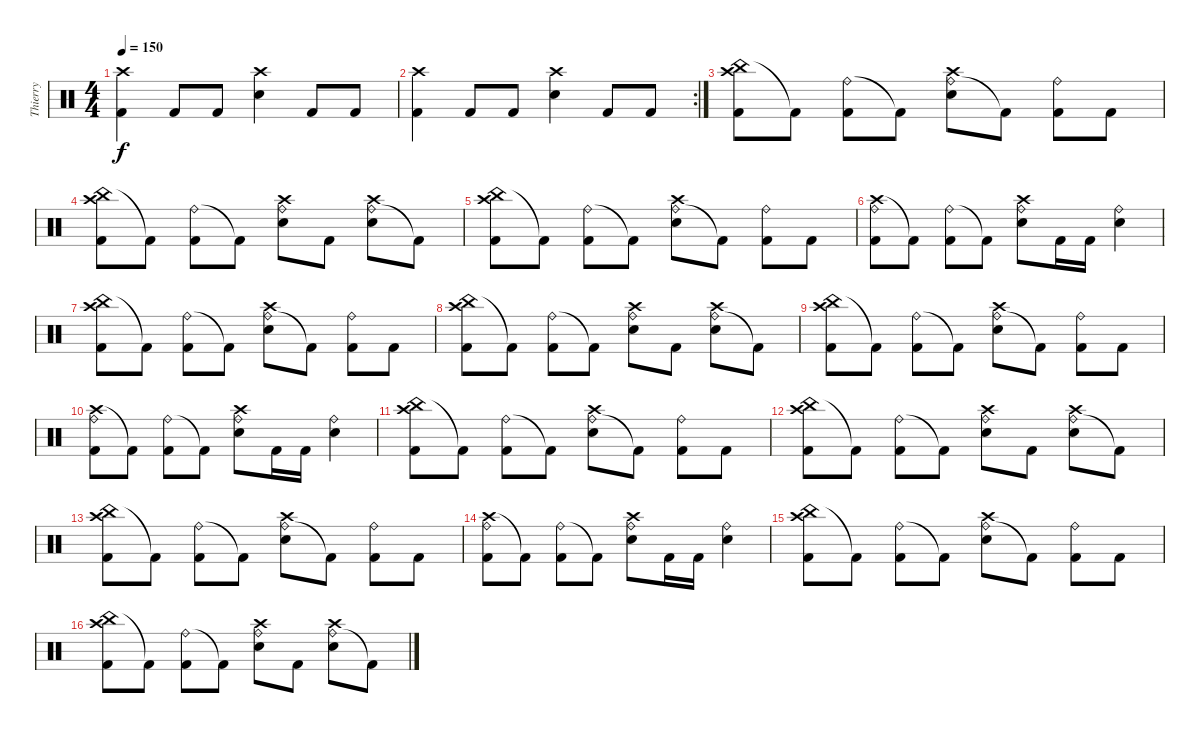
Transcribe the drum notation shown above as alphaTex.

\track ("Thierry" "Thierry") {instrument percussion}
\staff {score}
\articulation defaults
\ts (4 4)
\tempo 150
\clef neutral
\ks c
("Crash high (hit)" "Kick (hit) 2").4{dy f} "Kick (hit) 2".8 "Kick (hit) 2".8 ("Crash high (hit)" "Electric Snare (hit)").4 "Kick (hit) 2".8 "Kick (hit) 2".8 |
\rc 2
("Crash high (hit)" "Kick (hit) 2").4 "Kick (hit) 2".8 "Kick (hit) 2".8 ("Crash high (hit)" "Electric Snare (hit)").4 "Kick (hit) 2".8 "Kick (hit) 2".8 |
("China (hit)" "Crash high (hit)" "Kick (hit) 2").8 "Kick (hit) 2"{t}.8 ("Ride (bell)" "Kick (hit) 2").8 "Kick (hit) 2"{t}.8 ("Ride (bell)" "Crash high (hit)" "Electric Snare (hit)").8 "Kick (hit) 2"{t}.8 ("Ride (bell)" "Kick (hit) 2").8 "Kick (hit) 2".8 |
("China (hit)" "Crash high (hit)" "Kick (hit) 2").8 "Kick (hit) 2"{t}.8 ("Ride (bell)" "Kick (hit) 2").8 "Kick (hit) 2"{t}.8 ("Ride (bell)" "Crash high (hit)" "Electric Snare (hit)").8 "Kick (hit) 2".8 ("Ride (bell)" "Crash high (hit)" "Electric Snare (hit)").8 "Kick (hit) 2"{t}.8 |
("China (hit)" "Crash high (hit)" "Kick (hit) 2").8 "Kick (hit) 2"{t}.8 ("Ride (bell)" "Kick (hit) 2").8 "Kick (hit) 2"{t}.8 ("Ride (bell)" "Crash high (hit)" "Electric Snare (hit)").8 "Kick (hit) 2"{t}.8 ("Ride (bell)" "Kick (hit) 2").8 "Kick (hit) 2".8 |
("Crash high (hit)" "Ride (bell)" "Kick (hit) 2").8 "Kick (hit) 2"{t}.8 ("Ride (bell)" "Kick (hit) 2").8 "Kick (hit) 2"{t}.8 ("Crash high (hit)" "Ride (bell)" "Electric Snare (hit)").8 "Kick (hit) 2".16 "Kick (hit) 2".16 ("Ride (bell)" "Electric Snare (hit)").4 |
("China (hit)" "Crash high (hit)" "Kick (hit) 2").8 "Kick (hit) 2"{t}.8 ("Ride (bell)" "Kick (hit) 2").8 "Kick (hit) 2"{t}.8 ("Ride (bell)" "Crash high (hit)" "Electric Snare (hit)").8 "Kick (hit) 2"{t}.8 ("Ride (bell)" "Kick (hit) 2").8 "Kick (hit) 2".8 |
("China (hit)" "Crash high (hit)" "Kick (hit) 2").8 "Kick (hit) 2"{t}.8 ("Ride (bell)" "Kick (hit) 2").8 "Kick (hit) 2"{t}.8 ("Ride (bell)" "Crash high (hit)" "Electric Snare (hit)").8 "Kick (hit) 2".8 ("Ride (bell)" "Crash high (hit)" "Electric Snare (hit)").8 "Kick (hit) 2"{t}.8 |
("China (hit)" "Crash high (hit)" "Kick (hit) 2").8 "Kick (hit) 2"{t}.8 ("Ride (bell)" "Kick (hit) 2").8 "Kick (hit) 2"{t}.8 ("Ride (bell)" "Crash high (hit)" "Electric Snare (hit)").8 "Kick (hit) 2"{t}.8 ("Ride (bell)" "Kick (hit) 2").8 "Kick (hit) 2".8 |
("Crash high (hit)" "Ride (bell)" "Kick (hit) 2").8 "Kick (hit) 2"{t}.8 ("Ride (bell)" "Kick (hit) 2").8 "Kick (hit) 2"{t}.8 ("Crash high (hit)" "Ride (bell)" "Electric Snare (hit)").8 "Kick (hit) 2".16 "Kick (hit) 2".16 ("Ride (bell)" "Electric Snare (hit)").4 |
("China (hit)" "Crash high (hit)" "Kick (hit) 2").8 "Kick (hit) 2"{t}.8 ("Ride (bell)" "Kick (hit) 2").8 "Kick (hit) 2"{t}.8 ("Ride (bell)" "Crash high (hit)" "Electric Snare (hit)").8 "Kick (hit) 2"{t}.8 ("Ride (bell)" "Kick (hit) 2").8 "Kick (hit) 2".8 |
("China (hit)" "Crash high (hit)" "Kick (hit) 2").8 "Kick (hit) 2"{t}.8 ("Ride (bell)" "Kick (hit) 2").8 "Kick (hit) 2"{t}.8 ("Ride (bell)" "Crash high (hit)" "Electric Snare (hit)").8 "Kick (hit) 2".8 ("Ride (bell)" "Crash high (hit)" "Electric Snare (hit)").8 "Kick (hit) 2"{t}.8 |
("China (hit)" "Crash high (hit)" "Kick (hit) 2").8 "Kick (hit) 2"{t}.8 ("Ride (bell)" "Kick (hit) 2").8 "Kick (hit) 2"{t}.8 ("Ride (bell)" "Crash high (hit)" "Electric Snare (hit)").8 "Kick (hit) 2"{t}.8 ("Ride (bell)" "Kick (hit) 2").8 "Kick (hit) 2".8 |
("Crash high (hit)" "Ride (bell)" "Kick (hit) 2").8 "Kick (hit) 2"{t}.8 ("Ride (bell)" "Kick (hit) 2").8 "Kick (hit) 2"{t}.8 ("Crash high (hit)" "Ride (bell)" "Electric Snare (hit)").8 "Kick (hit) 2".16 "Kick (hit) 2".16 ("Ride (bell)" "Electric Snare (hit)").4 |
("China (hit)" "Crash high (hit)" "Kick (hit) 2").8 "Kick (hit) 2"{t}.8 ("Ride (bell)" "Kick (hit) 2").8 "Kick (hit) 2"{t}.8 ("Ride (bell)" "Crash high (hit)" "Electric Snare (hit)").8 "Kick (hit) 2"{t}.8 ("Ride (bell)" "Kick (hit) 2").8 "Kick (hit) 2".8 |
("China (hit)" "Crash high (hit)" "Kick (hit) 2").8 "Kick (hit) 2"{t}.8 ("Ride (bell)" "Kick (hit) 2").8 "Kick (hit) 2"{t}.8 ("Ride (bell)" "Crash high (hit)" "Electric Snare (hit)").8 "Kick (hit) 2".8 ("Ride (bell)" "Crash high (hit)" "Electric Snare (hit)").8 "Kick (hit) 2"{t}.8
